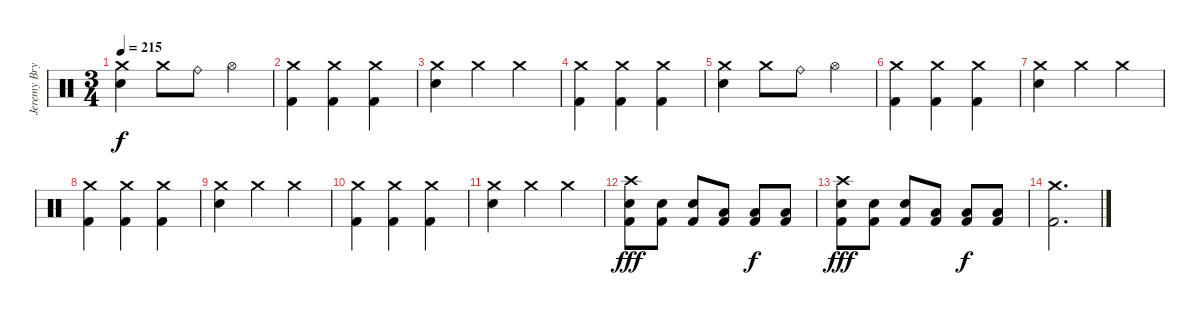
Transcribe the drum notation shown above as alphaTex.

\track ("Jeremy Bryan - Drums" "Jeremy Bry") {instrument percussion}
\staff {score}
\articulation defaults
\ts (3 4)
\tempo 215
\clef neutral
\ks c
("Crash medium (hit)" "Electric Snare (hit)").4{dy f} "Crash medium (hit)".8 "Ride (bell)".8 "Hi-Hat (open)".4 |
("Crash medium (hit)" "Kick (hit) 2").4 ("Crash medium (hit)" "Kick (hit) 2").4 ("Crash medium (hit)" "Kick (hit) 2").4 |
("Crash medium (hit)" "Electric Snare (hit)").4 "Crash medium (hit)".4 "Crash medium (hit)".4 |
("Crash medium (hit)" "Kick (hit) 2").4 ("Crash medium (hit)" "Kick (hit) 2").4 ("Crash medium (hit)" "Kick (hit) 2").4 |
("Crash medium (hit)" "Electric Snare (hit)").4 "Crash medium (hit)".8 "Ride (bell)".8 "Hi-Hat (open)".4 |
("Crash medium (hit)" "Kick (hit) 2").4 ("Crash medium (hit)" "Kick (hit) 2").4 ("Crash medium (hit)" "Kick (hit) 2").4 |
("Crash medium (hit)" "Electric Snare (hit)").4 "Crash medium (hit)".4 "Crash medium (hit)".4 |
("Crash medium (hit)" "Kick (hit) 2").4 ("Crash medium (hit)" "Kick (hit) 2").4 ("Crash medium (hit)" "Kick (hit) 2").4 |
("Crash medium (hit)" "Electric Snare (hit)").4 "Crash medium (hit)".4 "Crash medium (hit)".4 |
("Crash medium (hit)" "Kick (hit) 2").4 ("Crash medium (hit)" "Kick (hit) 2").4 ("Crash medium (hit)" "Kick (hit) 2").4 |
("Crash medium (hit)" "Electric Snare (hit)").4 "Crash medium (hit)".4 "Crash medium (hit)".4 |
("Crash high (hit)" "Electric Snare (hit)" "Kick (hit) 2").8{dy fff} ("Electric Snare (hit)" "Kick (hit) 2").8 ("Electric Snare (hit)" "Kick (hit) 2").8 ("Low Floor Tom (hit)" "Kick (hit) 2").8 ("Low Floor Tom (hit)" "Kick (hit) 2").8{dy f} ("Low Floor Tom (hit)" "Kick (hit) 2").8 |
("Crash high (hit)" "Electric Snare (hit)" "Kick (hit) 2").8{dy fff} ("Electric Snare (hit)" "Kick (hit) 2").8 ("Electric Snare (hit)" "Kick (hit) 2").8 ("Low Floor Tom (hit)" "Kick (hit) 2").8 ("Low Floor Tom (hit)" "Kick (hit) 2").8{dy f} ("Low Floor Tom (hit)" "Kick (hit) 2").8 |
("Crash medium (hit)" "Kick (hit) 2").2{d}
